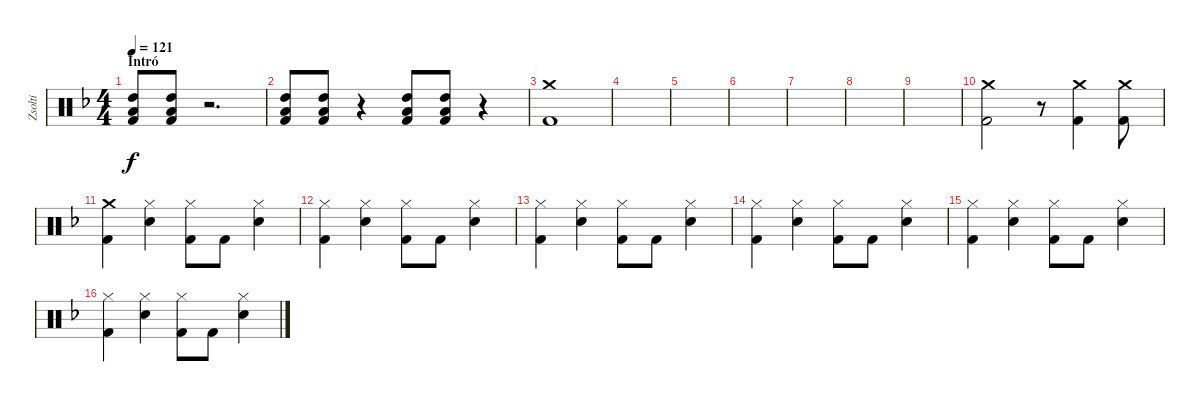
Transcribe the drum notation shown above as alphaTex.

\track ("Zsolti" "Zsolti") {instrument percussion}
\staff {score}
\articulation defaults
\ts (4 4)
\section ("" "Intró")
\tempo 121
\clef neutral
\ks dminor
("High Tom (hit)" "Low Tom (hit)" "Kick (hit) 2").8{dy f} ("High Tom (hit)" "Low Tom (hit)" "Kick (hit) 2").8 r.2{d} |
("High Tom (hit)" "Low Tom (hit)" "Kick (hit) 2").8 ("High Tom (hit)" "Low Tom (hit)" "Kick (hit) 2").8 r.4 ("High Tom (hit)" "Low Tom (hit)" "Kick (hit) 2").8 ("High Tom (hit)" "Low Tom (hit)" "Kick (hit) 2").8 r.4 |
("Crash medium (hit)" "Kick (hit) 2").1 |
|
|
|
|
|
|
("Crash medium (hit)" "Kick (hit) 2").2 r.8 ("Crash medium (hit)" "Kick (hit) 2").4 ("Crash medium (hit)" "Kick (hit) 2").8 |
("Crash medium (hit)" "Kick (hit) 2").4 ("Hi-Hat (closed)" "Snare (hit) 2").4 ("Hi-Hat (closed)" "Kick (hit) 2").8 "Kick (hit) 2".8 ("Hi-Hat (closed)" "Snare (hit) 2").4 |
("Hi-Hat (closed)" "Kick (hit) 2").4 ("Hi-Hat (closed)" "Snare (hit) 2").4 ("Hi-Hat (closed)" "Kick (hit) 2").8 "Kick (hit) 2".8 ("Hi-Hat (closed)" "Snare (hit) 2").4 |
("Hi-Hat (closed)" "Kick (hit) 2").4 ("Hi-Hat (closed)" "Snare (hit) 2").4 ("Hi-Hat (closed)" "Kick (hit) 2").8 "Kick (hit) 2".8 ("Hi-Hat (closed)" "Snare (hit) 2").4 |
("Hi-Hat (closed)" "Kick (hit) 2").4 ("Hi-Hat (closed)" "Snare (hit) 2").4 ("Hi-Hat (closed)" "Kick (hit) 2").8 "Kick (hit) 2".8 ("Hi-Hat (closed)" "Snare (hit) 2").4 |
("Hi-Hat (closed)" "Kick (hit) 2").4 ("Hi-Hat (closed)" "Snare (hit) 2").4 ("Hi-Hat (closed)" "Kick (hit) 2").8 "Kick (hit) 2".8 ("Hi-Hat (closed)" "Snare (hit) 2").4 |
("Hi-Hat (closed)" "Kick (hit) 2").4 ("Hi-Hat (closed)" "Snare (hit) 2").4 ("Hi-Hat (closed)" "Kick (hit) 2").8 "Kick (hit) 2".8 ("Hi-Hat (closed)" "Snare (hit) 2").4
